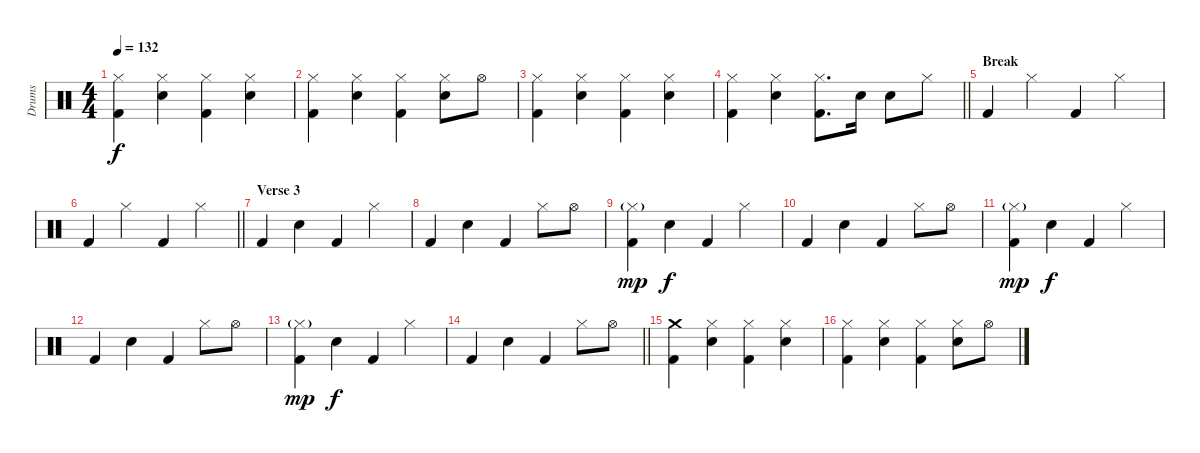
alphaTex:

\track ("Drums" "Drums") {instrument percussion}
\staff {score}
\articulation defaults
\ts (4 4)
\tempo 132
\clef neutral
\ks c
("Hi-Hat (closed)" "Kick (hit) 2").4{dy f} ("Hi-Hat (closed)" "Electric Snare (hit)").4 ("Hi-Hat (closed)" "Kick (hit) 2").4 ("Hi-Hat (closed)" "Electric Snare (hit)").4 |
("Hi-Hat (closed)" "Kick (hit) 2").4 ("Hi-Hat (closed)" "Electric Snare (hit)").4 ("Hi-Hat (closed)" "Kick (hit) 2").4 ("Hi-Hat (closed)" "Electric Snare (hit)").8 "Hi-Hat (open)".8 |
("Hi-Hat (closed)" "Kick (hit) 2").4 ("Hi-Hat (closed)" "Electric Snare (hit)").4 ("Hi-Hat (closed)" "Kick (hit) 2").4 ("Hi-Hat (closed)" "Electric Snare (hit)").4 |
\barLineRight lightlight
("Hi-Hat (closed)" "Kick (hit) 2").4 ("Hi-Hat (closed)" "Electric Snare (hit)").4 ("Hi-Hat (closed)" "Kick (hit) 2").8{d} "Electric Snare (hit)".16 "Electric Snare (hit)".8 "Hi-Hat (closed)".8 |
\section ("" "Break")
"Kick (hit) 2".4 "Hi-Hat (closed)".4 "Kick (hit) 2".4 "Hi-Hat (closed)".4 |
\barLineRight lightlight "Kick (hit) 2".4 "Hi-Hat (closed)".4 "Kick (hit) 2".4 "Hi-Hat (closed)".4
|
\section ("" "Verse 3")
"Kick (hit) 2".4 "Electric Snare (hit)".4 "Kick (hit) 2".4 "Hi-Hat (closed)".4 |
"Kick (hit) 2".4 "Electric Snare (hit)".4 "Kick (hit) 2".4 "Hi-Hat (closed)".8 "Hi-Hat (open)".8 |
("Hi-Hat (closed)"{g} "Kick (hit) 2").4{dy mp} "Electric Snare (hit)".4{dy f} "Kick (hit) 2".4 "Hi-Hat (closed)".4 |
"Kick (hit) 2".4 "Electric Snare (hit)".4 "Kick (hit) 2".4 "Hi-Hat (closed)".8 "Hi-Hat (open)".8 |
("Hi-Hat (closed)"{g} "Kick (hit) 2").4{dy mp} "Electric Snare (hit)".4{dy f} "Kick (hit) 2".4 "Hi-Hat (closed)".4 |
"Kick (hit) 2".4 "Electric Snare (hit)".4 "Kick (hit) 2".4 "Hi-Hat (closed)".8 "Hi-Hat (open)".8 |
("Hi-Hat (closed)"{g} "Kick (hit) 2").4{dy mp} "Electric Snare (hit)".4{dy f} "Kick (hit) 2".4 "Hi-Hat (closed)".4 |
\barLineRight lightlight "Kick (hit) 2".4 "Electric Snare (hit)".4 "Kick (hit) 2".4 "Hi-Hat (closed)".8 "Hi-Hat (open)".8
|
("Crash medium (hit)" "Kick (hit) 2").4 ("Hi-Hat (closed)" "Electric Snare (hit)").4 ("Hi-Hat (closed)" "Kick (hit) 2").4 ("Hi-Hat (closed)" "Electric Snare (hit)").4 |
("Hi-Hat (closed)" "Kick (hit) 2").4 ("Hi-Hat (closed)" "Electric Snare (hit)").4 ("Hi-Hat (closed)" "Kick (hit) 2").4 ("Hi-Hat (closed)" "Electric Snare (hit)").8 "Hi-Hat (open)".8
